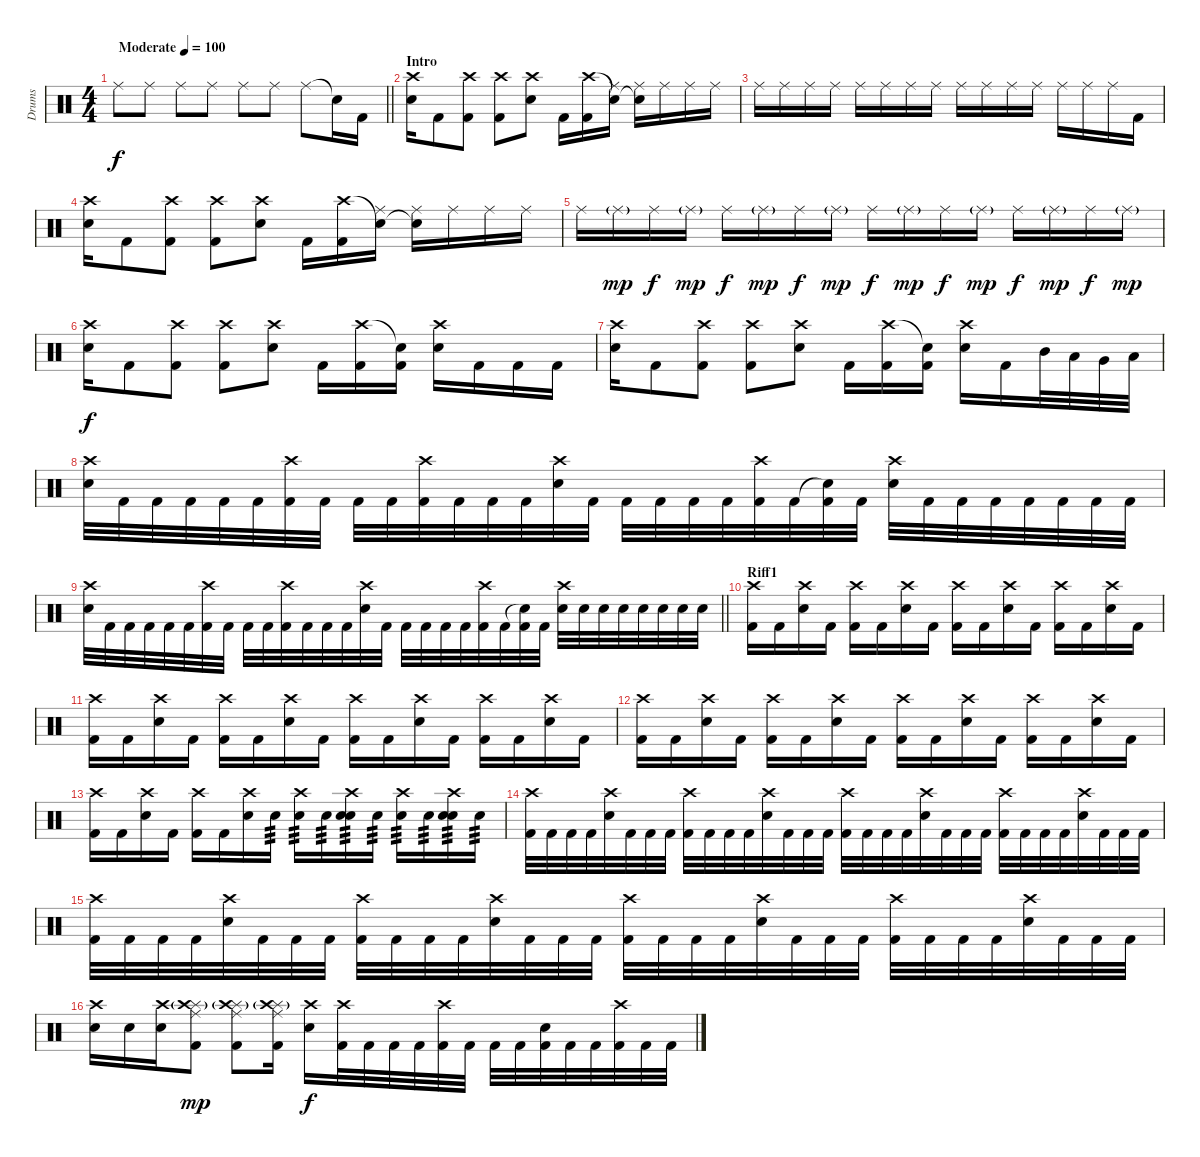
\track ("Drums" "Drums") {instrument percussion}
\staff {score}
\articulation defaults
\ts (4 4)
\tempo (100 "Moderate")
\clef neutral
\barLineRight lightlight
\ks c "Ride (middle)".8{dy f} "Ride (middle)".8 "Ride (middle)".8 "Ride (middle)".8 "Ride (middle)".8 "Ride (middle)".8 "Ride (middle)".8 "Snare (hit)"{t}.16 "Kick (hit) 2".16
|
\section ("" "Intro")
("Crash high (hit)" "Electric Snare (hit)").16 "Kick (hit) 2".8 ("Crash high (hit)" "Kick (hit) 2").8 ("Crash high (hit)" "Kick (hit) 2").8 ("Electric Snare (hit)" "Crash high (hit)").8 "Kick (hit) 2".16 ("Crash high (hit)" "Kick (hit) 2").16 ("Snare (hit)"{t} "Ride (middle)").16 ("Snare (hit)"{t} "Ride (middle)").16 "Ride (middle)".16 "Ride (middle)".16 "Ride (middle)".16 |
"Ride (middle)".16 "Ride (middle)".16 "Ride (middle)".16 "Ride (middle)".16 "Ride (middle)".16 "Ride (middle)".16 "Ride (middle)".16 "Ride (middle)".16 "Ride (middle)".16 "Ride (middle)".16 "Ride (middle)".16 "Ride (middle)".16 "Ride (middle)".16 "Ride (middle)".16 "Ride (middle)".16 "Kick (hit) 2".16 |
("Crash high (hit)" "Electric Snare (hit)").16 "Kick (hit) 2".8 ("Crash high (hit)" "Kick (hit) 2").8 ("Crash high (hit)" "Kick (hit) 2").8 ("Electric Snare (hit)" "Crash high (hit)").8 "Kick (hit) 2".16 ("Crash high (hit)" "Kick (hit) 2").16 ("Snare (hit)"{t} "Ride (middle)").16 ("Snare (hit)"{t} "Ride (middle)").16 "Ride (middle)".16 "Ride (middle)".16 "Ride (middle)".16 |
"Ride (middle)".16 "Ride (middle)"{g}.16{dy mp} "Ride (middle)".16{dy f} "Ride (middle)"{g}.16{dy mp} "Ride (middle)".16{dy f} "Ride (middle)"{g}.16{dy mp} "Ride (middle)".16{dy f} "Ride (middle)"{g}.16{dy mp} "Ride (middle)".16{dy f} "Ride (middle)"{g}.16{dy mp} "Ride (middle)".16{dy f} "Ride (middle)"{g}.16{dy mp} "Ride (middle)".16{dy f} "Ride (middle)"{g}.16{dy mp} "Ride (middle)".16{dy f} "Ride (middle)"{g}.16{dy mp} |
("Crash high (hit)" "Electric Snare (hit)").16{dy f} "Kick (hit) 2".8 ("Crash high (hit)" "Kick (hit) 2").8 ("Crash high (hit)" "Kick (hit) 2").8 ("Electric Snare (hit)" "Crash high (hit)").8 "Kick (hit) 2".16 ("Crash high (hit)" "Kick (hit) 2").16 ("Snare (hit)"{t} "Kick (hit) 2").16 ("Crash high (hit)" "Electric Snare (hit)").16 "Kick (hit) 2".16 "Kick (hit) 2".16 "Kick (hit) 2".16 |
("Crash high (hit)" "Electric Snare (hit)").16 "Kick (hit) 2".8 ("Crash high (hit)" "Kick (hit) 2").8 ("Crash high (hit)" "Kick (hit) 2").8 ("Electric Snare (hit)" "Crash high (hit)").8 "Kick (hit) 2".16 ("Crash high (hit)" "Kick (hit) 2").16 ("Snare (hit)"{t} "Kick (hit) 2").16 ("Crash high (hit)" "Electric Snare (hit)").16 "Kick (hit) 2".16 "Mid Tom (hit)".32 "Low Tom (hit)".32 "Very Low Tom (hit)".32 "Low Floor Tom (hit)".32 |
("Crash high (hit)" "Electric Snare (hit)").32 "Kick (hit) 2".32 "Kick (hit) 2".32 "Kick (hit) 2".32 "Kick (hit) 2".32 "Kick (hit) 2".32 ("Crash high (hit)" "Kick (hit) 2").32 "Kick (hit) 2".32 "Kick (hit) 2".32 "Kick (hit) 2".32 ("Crash high (hit)" "Kick (hit) 2").32 "Kick (hit) 2".32 "Kick (hit) 2".32 "Kick (hit) 2".32 ("Electric Snare (hit)" "Crash high (hit)").32 "Kick (hit) 2".32 "Kick (hit) 2".32 "Kick (hit) 2".32 "Kick (hit) 2".32 "Kick (hit) 2".32 ("Crash high (hit)" "Kick (hit) 2").32 "Kick (hit) 2".32 ("Snare (hit)"{t} "Kick (hit) 2").32 "Kick (hit) 2".32 ("Crash high (hit)" "Electric Snare (hit)").32 "Kick (hit) 2".32 "Kick (hit) 2".32 "Kick (hit) 2".32 "Kick (hit) 2".32 "Kick (hit) 2".32 "Kick (hit) 2".32 "Kick (hit) 2".32 |
\barLineRight lightlight
("Crash high (hit)" "Electric Snare (hit)").32 "Kick (hit) 2".32 "Kick (hit) 2".32 "Kick (hit) 2".32 "Kick (hit) 2".32 "Kick (hit) 2".32 ("Crash high (hit)" "Kick (hit) 2").32 "Kick (hit) 2".32 "Kick (hit) 2".32 "Kick (hit) 2".32 ("Crash high (hit)" "Kick (hit) 2").32 "Kick (hit) 2".32 "Kick (hit) 2".32 "Kick (hit) 2".32 ("Electric Snare (hit)" "Crash high (hit)").32 "Kick (hit) 2".32 "Kick (hit) 2".32 "Kick (hit) 2".32 "Kick (hit) 2".32 "Kick (hit) 2".32 ("Crash high (hit)" "Kick (hit) 2").32 "Kick (hit) 2".32 ("Snare (hit)"{t} "Kick (hit) 2").32 "Kick (hit) 2".32 ("Crash high (hit)" "Electric Snare (hit)").32 "Electric Snare (hit)".32 "Electric Snare (hit)".32 "Electric Snare (hit)".32 "Electric Snare (hit)".32 "Electric Snare (hit)".32 "Electric Snare (hit)".32 "Electric Snare (hit)".32 |
\section ("" "Riff1")
("Crash high (hit)" "Kick (hit) 2").16 "Kick (hit) 2".16 ("Crash high (hit)" "Electric Snare (hit)").16 "Kick (hit) 2".16 ("Crash high (hit)" "Kick (hit) 2").16 "Kick (hit) 2".16 ("Crash high (hit)" "Electric Snare (hit)").16 "Kick (hit) 2".16 ("Crash high (hit)" "Kick (hit) 2").16 "Kick (hit) 2".16 ("Crash high (hit)" "Electric Snare (hit)").16 "Kick (hit) 2".16 ("Crash high (hit)" "Kick (hit) 2").16 "Kick (hit) 2".16 ("Crash high (hit)" "Electric Snare (hit)").16 "Kick (hit) 2".16 |
("Crash high (hit)" "Kick (hit) 2").16 "Kick (hit) 2".16 ("Crash high (hit)" "Electric Snare (hit)").16 "Kick (hit) 2".16 ("Crash high (hit)" "Kick (hit) 2").16 "Kick (hit) 2".16 ("Crash high (hit)" "Electric Snare (hit)").16 "Kick (hit) 2".16 ("Crash high (hit)" "Kick (hit) 2").16 "Kick (hit) 2".16 ("Crash high (hit)" "Electric Snare (hit)").16 "Kick (hit) 2".16 ("Crash high (hit)" "Kick (hit) 2").16 "Kick (hit) 2".16 ("Crash high (hit)" "Electric Snare (hit)").16 "Kick (hit) 2".16 |
("Crash high (hit)" "Kick (hit) 2").16 "Kick (hit) 2".16 ("Crash high (hit)" "Electric Snare (hit)").16 "Kick (hit) 2".16 ("Crash high (hit)" "Kick (hit) 2").16 "Kick (hit) 2".16 ("Crash high (hit)" "Electric Snare (hit)").16 "Kick (hit) 2".16 ("Crash high (hit)" "Kick (hit) 2").16 "Kick (hit) 2".16 ("Crash high (hit)" "Electric Snare (hit)").16 "Kick (hit) 2".16 ("Crash high (hit)" "Kick (hit) 2").16 "Kick (hit) 2".16 ("Crash high (hit)" "Electric Snare (hit)").16 "Kick (hit) 2".16 |
("Crash high (hit)" "Kick (hit) 2").16 "Kick (hit) 2".16 ("Crash high (hit)" "Electric Snare (hit)").16 "Kick (hit) 2".16 ("Crash high (hit)" "Kick (hit) 2").16 "Kick (hit) 2".16 ("Crash high (hit)" "Electric Snare (hit)").16 "Electric Snare (hit)".16{tp 3} ("Crash high (hit)" "Electric Snare (hit)").16{tp 3} "Electric Snare (hit)".16{tp 3} ("Crash high (hit)" "Electric Snare (hit)" "Electric Snare (hit)").16{tp 3} "Electric Snare (hit)".16{tp 3} ("Crash high (hit)" "Electric Snare (hit)").16{tp 3} "Electric Snare (hit)".16{tp 3} ("Crash high (hit)" "Electric Snare (hit)" "Electric Snare (hit)").16{tp 3} "Electric Snare (hit)".16{tp 3} |
("Crash high (hit)" "Kick (hit) 2").32 "Kick (hit) 2".32 "Kick (hit) 2".32 "Kick (hit) 2".32 ("Crash high (hit)" "Electric Snare (hit)").32 "Kick (hit) 2".32 "Kick (hit) 2".32 "Kick (hit) 2".32 ("Crash high (hit)" "Kick (hit) 2").32 "Kick (hit) 2".32 "Kick (hit) 2".32 "Kick (hit) 2".32 ("Crash high (hit)" "Electric Snare (hit)").32 "Kick (hit) 2".32 "Kick (hit) 2".32 "Kick (hit) 2".32 ("Crash high (hit)" "Kick (hit) 2").32 "Kick (hit) 2".32 "Kick (hit) 2".32 "Kick (hit) 2".32 ("Crash high (hit)" "Electric Snare (hit)").32 "Kick (hit) 2".32 "Kick (hit) 2".32 "Kick (hit) 2".32 ("Crash high (hit)" "Kick (hit) 2").32 "Kick (hit) 2".32 "Kick (hit) 2".32 "Kick (hit) 2".32 ("Crash high (hit)" "Electric Snare (hit)").32 "Kick (hit) 2".32 "Kick (hit) 2".32 "Kick (hit) 2".32 |
("Crash high (hit)" "Kick (hit) 2").32 "Kick (hit) 2".32 "Kick (hit) 2".32 "Kick (hit) 2".32 ("Crash high (hit)" "Electric Snare (hit)").32 "Kick (hit) 2".32 "Kick (hit) 2".32 "Kick (hit) 2".32 ("Crash high (hit)" "Kick (hit) 2").32 "Kick (hit) 2".32 "Kick (hit) 2".32 "Kick (hit) 2".32 ("Crash high (hit)" "Electric Snare (hit)").32 "Kick (hit) 2".32 "Kick (hit) 2".32 "Kick (hit) 2".32 ("Crash high (hit)" "Kick (hit) 2").32 "Kick (hit) 2".32 "Kick (hit) 2".32 "Kick (hit) 2".32 ("Crash high (hit)" "Electric Snare (hit)").32 "Kick (hit) 2".32 "Kick (hit) 2".32 "Kick (hit) 2".32 ("Crash high (hit)" "Kick (hit) 2").32 "Kick (hit) 2".32 "Kick (hit) 2".32 "Kick (hit) 2".32 ("Crash high (hit)" "Electric Snare (hit)").32 "Kick (hit) 2".32 "Kick (hit) 2".32 "Kick (hit) 2".32 |
("Crash high (hit)" "Electric Snare (hit)").16 "Electric Snare (hit)".16 ("Crash high (hit)" "Electric Snare (hit)").16 ("Ride (middle)" "Splash (hit)" "Crash high (hit)"{g} "Kick (hit) 2").8{dy mp} ("Ride (middle)" "Splash (hit)" "Crash high (hit)"{g} "Kick (hit) 2").8 ("Ride (middle)" "Splash (hit)" "Crash high (hit)"{g} "Kick (hit) 2").16 ("Crash high (hit)" "Electric Snare (hit)").16{dy f} ("Crash high (hit)" "Kick (hit) 2").32 "Kick (hit) 2".32 "Kick (hit) 2".32 "Kick (hit) 2".32 ("Crash high (hit)" "Kick (hit) 2").32 "Kick (hit) 2".32 "Kick (hit) 2".32 "Kick (hit) 2".32 ("Electric Snare (hit)" "Kick (hit) 2").32 "Kick (hit) 2".32 "Kick (hit) 2".32 ("Crash high (hit)" "Kick (hit) 2").32 "Kick (hit) 2".32 "Kick (hit) 2".32
